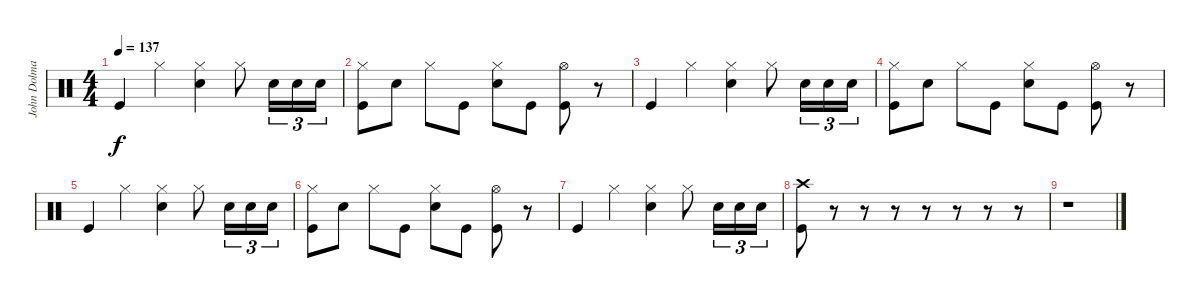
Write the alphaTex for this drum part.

\track ("John Dolmayan - Drums" "John Dolma") {instrument percussion}
\staff {score}
\articulation defaults
\ts (4 4)
\tempo 137
\clef neutral
\ks c "Kick (hit)".4{dy f} "Hi-Hat (closed)".4
("Hi-Hat (closed)" "Snare (hit) 2").4 "Hi-Hat (closed)".8 "Snare (hit) 2".16{tu (3 2)} "Snare (hit) 2".16{tu (3 2)} "Snare (hit) 2".16{tu (3 2)} |
("Hi-Hat (closed)" "Kick (hit)").8 "Snare (hit) 2".8 "Hi-Hat (closed)".8 "Kick (hit)".8 ("Hi-Hat (closed)" "Snare (hit) 2").8 "Kick (hit)".8 ("Hi-Hat (open)" "Kick (hit)").8 r.8 |
"Kick (hit)".4 "Hi-Hat (closed)".4 ("Hi-Hat (closed)" "Snare (hit) 2").4 "Hi-Hat (closed)".8 "Snare (hit) 2".16{tu (3 2)} "Snare (hit) 2".16{tu (3 2)} "Snare (hit) 2".16{tu (3 2)} |
("Hi-Hat (closed)" "Kick (hit)").8 "Snare (hit) 2".8 "Hi-Hat (closed)".8 "Kick (hit)".8 ("Hi-Hat (closed)" "Snare (hit) 2").8 "Kick (hit)".8 ("Hi-Hat (open)" "Kick (hit)").8 r.8 |
"Kick (hit)".4 "Hi-Hat (closed)".4 ("Hi-Hat (closed)" "Snare (hit) 2").4 "Hi-Hat (closed)".8 "Snare (hit) 2".16{tu (3 2)} "Snare (hit) 2".16{tu (3 2)} "Snare (hit) 2".16{tu (3 2)} |
("Hi-Hat (closed)" "Kick (hit)").8 "Snare (hit) 2".8 "Hi-Hat (closed)".8 "Kick (hit)".8 ("Hi-Hat (closed)" "Snare (hit) 2").8 "Kick (hit)".8 ("Hi-Hat (open)" "Kick (hit)").8 r.8 |
"Kick (hit)".4 "Hi-Hat (closed)".4 ("Hi-Hat (closed)" "Snare (hit) 2").4 "Hi-Hat (closed)".8 "Snare (hit) 2".16{tu (3 2)} "Snare (hit) 2".16{tu (3 2)} "Snare (hit) 2".16{tu (3 2)} |
("Crash high (hit)" "Kick (hit)").8 r.8 r.8 r.8 r.8 r.8 r.8 r.8 |
r.1
